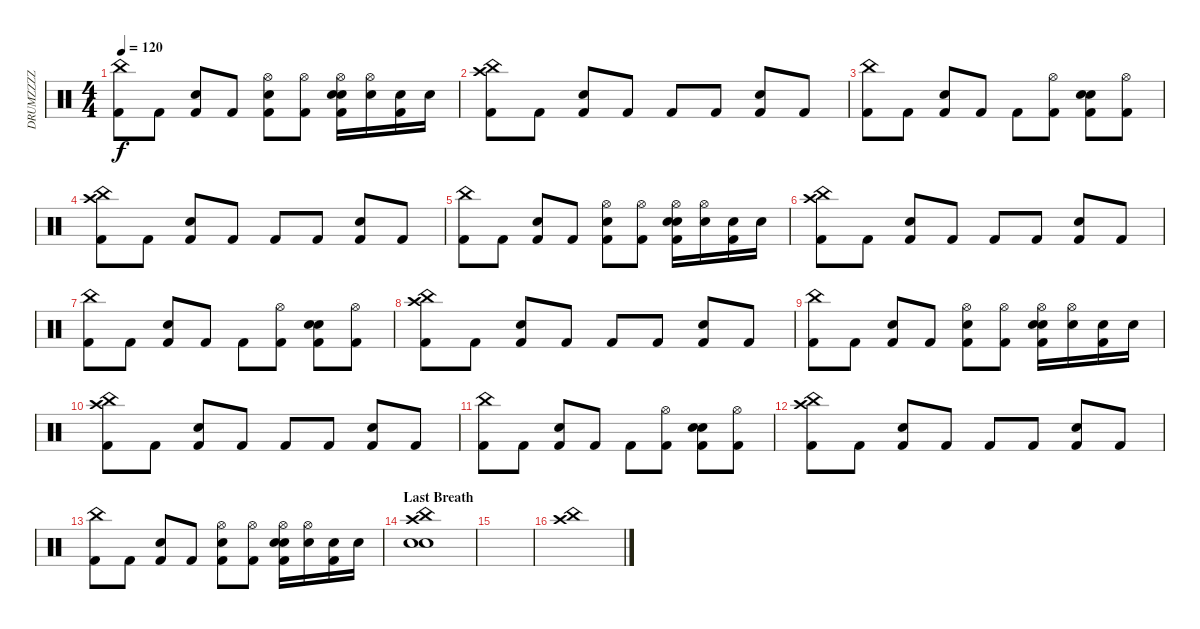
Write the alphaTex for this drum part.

\track ("DRUMZZZZ" "DRUMZZZZ") {instrument percussion}
\staff {score}
\articulation defaults
\ts (4 4)
\tempo 120
\clef neutral
\ks c
("China (hit)" "Kick (hit) 2").8{dy f} "Kick (hit) 2".8 ("Kick (hit) 2" "Snare (hit) 2").8 "Kick (hit) 2".8 ("Hi-Hat (open)" "Kick (hit) 2" "Electric Snare (hit)").8 ("Hi-Hat (open)" "Kick (hit) 2").8 ("Hi-Hat (open)" "Kick (hit) 2" "Electric Snare (hit)" "Snare (hit) 2").16 ("Hi-Hat (open)" "Electric Snare (hit)").16 ("Kick (hit) 2" "Electric Snare (hit)").16 "Electric Snare (hit)".16 |
("Crash high (hit)" "China (hit)" "Kick (hit) 2").8 "Kick (hit) 2".8 ("Kick (hit) 2" "Snare (hit) 2").8 "Kick (hit) 2".8 "Kick (hit) 2".8 "Kick (hit) 2".8 ("Kick (hit) 2" "Snare (hit) 2").8 "Kick (hit) 2".8 |
("China (hit)" "Kick (hit) 2").8 "Kick (hit) 2".8 ("Kick (hit) 2" "Snare (hit) 2").8 "Kick (hit) 2".8 "Kick (hit) 2".8 ("Hi-Hat (open)" "Kick (hit) 2").8 ("Kick (hit) 2" "Electric Snare (hit)" "Snare (hit) 2").8 ("Hi-Hat (open)" "Kick (hit) 2").8 |
("Crash high (hit)" "China (hit)" "Kick (hit) 2").8 "Kick (hit) 2".8 ("Kick (hit) 2" "Snare (hit) 2").8 "Kick (hit) 2".8 "Kick (hit) 2".8 "Kick (hit) 2".8 ("Kick (hit) 2" "Snare (hit) 2").8 "Kick (hit) 2".8 |
("China (hit)" "Kick (hit) 2").8 "Kick (hit) 2".8 ("Kick (hit) 2" "Snare (hit) 2").8 "Kick (hit) 2".8 ("Hi-Hat (open)" "Kick (hit) 2" "Electric Snare (hit)").8 ("Hi-Hat (open)" "Kick (hit) 2").8 ("Hi-Hat (open)" "Kick (hit) 2" "Electric Snare (hit)" "Snare (hit) 2").16 ("Hi-Hat (open)" "Electric Snare (hit)").16 ("Kick (hit) 2" "Electric Snare (hit)").16 "Electric Snare (hit)".16 |
("Crash high (hit)" "China (hit)" "Kick (hit) 2").8 "Kick (hit) 2".8 ("Kick (hit) 2" "Snare (hit) 2").8 "Kick (hit) 2".8 "Kick (hit) 2".8 "Kick (hit) 2".8 ("Kick (hit) 2" "Snare (hit) 2").8 "Kick (hit) 2".8 |
("China (hit)" "Kick (hit) 2").8 "Kick (hit) 2".8 ("Kick (hit) 2" "Snare (hit) 2").8 "Kick (hit) 2".8 "Kick (hit) 2".8 ("Hi-Hat (open)" "Kick (hit) 2").8 ("Kick (hit) 2" "Electric Snare (hit)" "Snare (hit) 2").8 ("Hi-Hat (open)" "Kick (hit) 2").8 |
("Crash high (hit)" "China (hit)" "Kick (hit) 2").8 "Kick (hit) 2".8 ("Kick (hit) 2" "Snare (hit) 2").8 "Kick (hit) 2".8 "Kick (hit) 2".8 "Kick (hit) 2".8 ("Kick (hit) 2" "Snare (hit) 2").8 "Kick (hit) 2".8 |
("China (hit)" "Kick (hit) 2").8 "Kick (hit) 2".8 ("Kick (hit) 2" "Snare (hit) 2").8 "Kick (hit) 2".8 ("Hi-Hat (open)" "Kick (hit) 2" "Electric Snare (hit)").8 ("Hi-Hat (open)" "Kick (hit) 2").8 ("Hi-Hat (open)" "Kick (hit) 2" "Electric Snare (hit)" "Snare (hit) 2").16 ("Hi-Hat (open)" "Electric Snare (hit)").16 ("Kick (hit) 2" "Electric Snare (hit)").16 "Electric Snare (hit)".16 |
("Crash high (hit)" "China (hit)" "Kick (hit) 2").8 "Kick (hit) 2".8 ("Kick (hit) 2" "Snare (hit) 2").8 "Kick (hit) 2".8 "Kick (hit) 2".8 "Kick (hit) 2".8 ("Kick (hit) 2" "Snare (hit) 2").8 "Kick (hit) 2".8 |
("China (hit)" "Kick (hit) 2").8 "Kick (hit) 2".8 ("Kick (hit) 2" "Snare (hit) 2").8 "Kick (hit) 2".8 "Kick (hit) 2".8 ("Hi-Hat (open)" "Kick (hit) 2").8 ("Kick (hit) 2" "Electric Snare (hit)" "Snare (hit) 2").8 ("Hi-Hat (open)" "Kick (hit) 2").8 |
("Crash high (hit)" "China (hit)" "Kick (hit) 2").8 "Kick (hit) 2".8 ("Kick (hit) 2" "Snare (hit) 2").8 "Kick (hit) 2".8 "Kick (hit) 2".8 "Kick (hit) 2".8 ("Kick (hit) 2" "Snare (hit) 2").8 "Kick (hit) 2".8 |
("China (hit)" "Kick (hit) 2").8 "Kick (hit) 2".8 ("Kick (hit) 2" "Snare (hit) 2").8 "Kick (hit) 2".8 ("Hi-Hat (open)" "Kick (hit) 2" "Electric Snare (hit)").8 ("Hi-Hat (open)" "Kick (hit) 2").8 ("Hi-Hat (open)" "Kick (hit) 2" "Electric Snare (hit)" "Snare (hit) 2").16 ("Hi-Hat (open)" "Electric Snare (hit)").16 ("Kick (hit) 2" "Electric Snare (hit)").16 "Electric Snare (hit)".16 |
\section ("" "Last Breath")
("Crash high (hit)" "China (hit)" "Snare (hit) 2" "Electric Snare (hit)").1 |
|
("Crash high (hit)" "China (hit)").1
